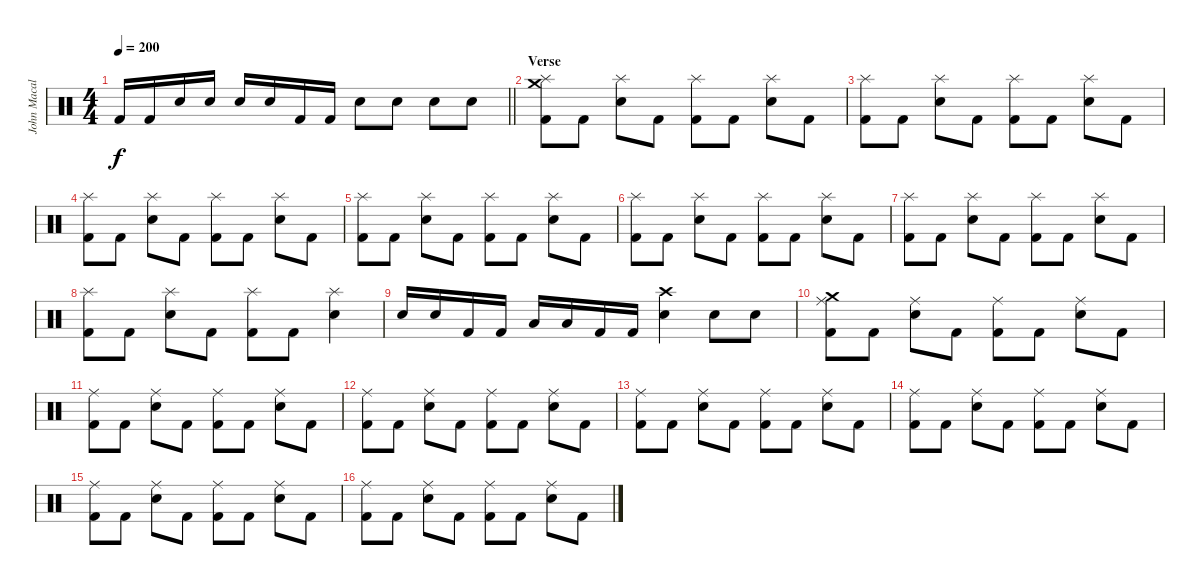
\track ("John Macaluso" "John Macal") {instrument percussion}
\staff {score}
\articulation defaults
\ts (4 4)
\tempo 200
\clef neutral
\barLineRight lightlight
\ks c "Kick (hit) 2".16{dy f} "Kick (hit) 2".16 "Snare (hit) 2".16 "Snare (hit) 2".16 "Snare (hit) 2".16 "Snare (hit) 2".16 "Kick (hit) 2".16 "Kick (hit) 2".16 "Snare (hit) 2".8 "Snare (hit) 2".8 "Snare (hit) 2".8 "Snare (hit) 2".8
|
\section ("" "Verse")
("Crash medium (hit)" "Splash (hit)" "Kick (hit) 2").8 "Kick (hit) 2".8 ("Splash (hit)" "Snare (hit) 2").8 "Kick (hit) 2".8 ("Splash (hit)" "Kick (hit) 2").8 "Kick (hit) 2".8 ("Splash (hit)" "Snare (hit) 2").8 "Kick (hit) 2".8 |
("Splash (hit)" "Kick (hit) 2").8 "Kick (hit) 2".8 ("Splash (hit)" "Snare (hit) 2").8 "Kick (hit) 2".8 ("Splash (hit)" "Kick (hit) 2").8 "Kick (hit) 2".8 ("Splash (hit)" "Snare (hit) 2").8 "Kick (hit) 2".8 |
("Splash (hit)" "Kick (hit) 2").8 "Kick (hit) 2".8 ("Splash (hit)" "Snare (hit) 2").8 "Kick (hit) 2".8 ("Splash (hit)" "Kick (hit) 2").8 "Kick (hit) 2".8 ("Splash (hit)" "Snare (hit) 2").8 "Kick (hit) 2".8 |
("Splash (hit)" "Kick (hit) 2").8 "Kick (hit) 2".8 ("Splash (hit)" "Snare (hit) 2").8 "Kick (hit) 2".8 ("Splash (hit)" "Kick (hit) 2").8 "Kick (hit) 2".8 ("Splash (hit)" "Snare (hit) 2").8 "Kick (hit) 2".8 |
("Splash (hit)" "Kick (hit) 2").8 "Kick (hit) 2".8 ("Splash (hit)" "Snare (hit) 2").8 "Kick (hit) 2".8 ("Splash (hit)" "Kick (hit) 2").8 "Kick (hit) 2".8 ("Splash (hit)" "Snare (hit) 2").8 "Kick (hit) 2".8 |
("Splash (hit)" "Kick (hit) 2").8 "Kick (hit) 2".8 ("Splash (hit)" "Snare (hit) 2").8 "Kick (hit) 2".8 ("Splash (hit)" "Kick (hit) 2").8 "Kick (hit) 2".8 ("Splash (hit)" "Snare (hit) 2").8 "Kick (hit) 2".8 |
("Splash (hit)" "Kick (hit) 2").8 "Kick (hit) 2".8 ("Splash (hit)" "Snare (hit) 2").8 "Kick (hit) 2".8 ("Splash (hit)" "Kick (hit) 2").8 "Kick (hit) 2".8 ("Splash (hit)" "Snare (hit) 2").4 |
"Snare (hit) 2".16 "Snare (hit) 2".16 "Kick (hit) 2".16 "Kick (hit) 2".16 "Low Tom (hit)".16 "Low Tom (hit)".16 "Kick (hit) 2".16 "Kick (hit) 2".16 ("Crash high (hit)" "Snare (hit) 2").4 "Snare (hit) 2".8 "Snare (hit) 2".8 |
("Crash medium (hit)" "Ride (middle)" "Kick (hit) 2").8 "Kick (hit) 2".8 ("Ride (middle)" "Snare (hit) 2").8 "Kick (hit) 2".8 ("Ride (middle)" "Kick (hit) 2").8 "Kick (hit) 2".8 ("Ride (middle)" "Snare (hit) 2").8 "Kick (hit) 2".8 |
("Ride (middle)" "Kick (hit) 2").8 "Kick (hit) 2".8 ("Ride (middle)" "Snare (hit) 2").8 "Kick (hit) 2".8 ("Ride (middle)" "Kick (hit) 2").8 "Kick (hit) 2".8 ("Ride (middle)" "Snare (hit) 2").8 "Kick (hit) 2".8 |
("Ride (middle)" "Kick (hit) 2").8 "Kick (hit) 2".8 ("Ride (middle)" "Snare (hit) 2").8 "Kick (hit) 2".8 ("Ride (middle)" "Kick (hit) 2").8 "Kick (hit) 2".8 ("Ride (middle)" "Snare (hit) 2").8 "Kick (hit) 2".8 |
("Ride (middle)" "Kick (hit) 2").8 "Kick (hit) 2".8 ("Ride (middle)" "Snare (hit) 2").8 "Kick (hit) 2".8 ("Ride (middle)" "Kick (hit) 2").8 "Kick (hit) 2".8 ("Ride (middle)" "Snare (hit) 2").8 "Kick (hit) 2".8 |
("Ride (middle)" "Kick (hit) 2").8 "Kick (hit) 2".8 ("Ride (middle)" "Snare (hit) 2").8 "Kick (hit) 2".8 ("Ride (middle)" "Kick (hit) 2").8 "Kick (hit) 2".8 ("Ride (middle)" "Snare (hit) 2").8 "Kick (hit) 2".8 |
("Ride (middle)" "Kick (hit) 2").8 "Kick (hit) 2".8 ("Ride (middle)" "Snare (hit) 2").8 "Kick (hit) 2".8 ("Ride (middle)" "Kick (hit) 2").8 "Kick (hit) 2".8 ("Ride (middle)" "Snare (hit) 2").8 "Kick (hit) 2".8 |
("Ride (middle)" "Kick (hit) 2").8 "Kick (hit) 2".8 ("Ride (middle)" "Snare (hit) 2").8 "Kick (hit) 2".8 ("Ride (middle)" "Kick (hit) 2").8 "Kick (hit) 2".8 ("Ride (middle)" "Snare (hit) 2").8 "Kick (hit) 2".8
